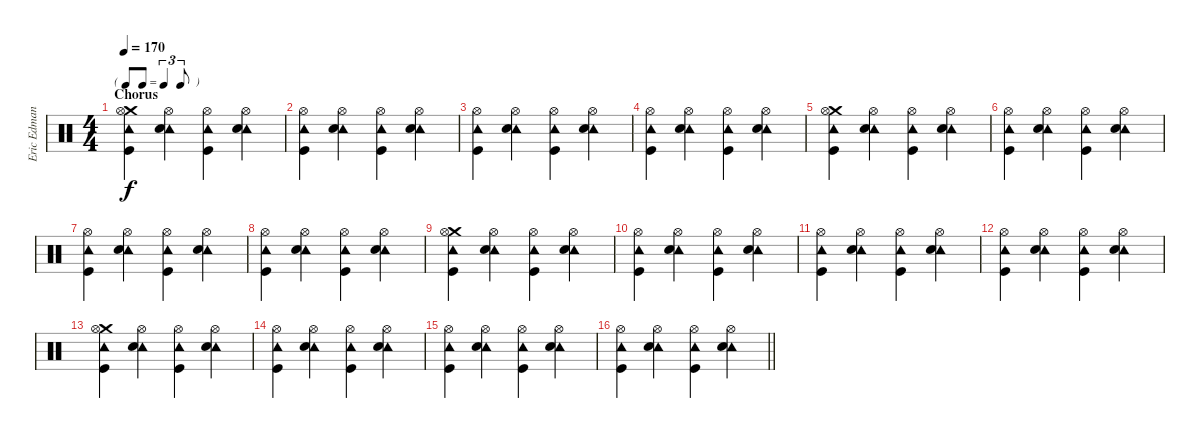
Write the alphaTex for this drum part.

\track ("Eric Edman - Drums" "Eric Edman") {instrument percussion}
\staff {score}
\articulation defaults
\ts (4 4)
\tf triplet8th
\section ("" "Chorus")
\tempo 170
\clef neutral
\ks c
("Crash medium (hit)" "Tambourine (hit)" "Kick (hit)" "Hi-Hat (open)").4{dy f} ("Tambourine (hit)" "Snare (hit) 2" "Hi-Hat (open)").4 ("Tambourine (hit)" "Kick (hit)" "Hi-Hat (open)").4 ("Tambourine (hit)" "Snare (hit) 2" "Hi-Hat (open)").4 |
("Tambourine (hit)" "Kick (hit)" "Hi-Hat (open)").4 ("Tambourine (hit)" "Snare (hit) 2" "Hi-Hat (open)").4 ("Tambourine (hit)" "Kick (hit)" "Hi-Hat (open)").4 ("Tambourine (hit)" "Snare (hit) 2" "Hi-Hat (open)").4 |
("Tambourine (hit)" "Kick (hit)" "Hi-Hat (open)").4 ("Tambourine (hit)" "Snare (hit) 2" "Hi-Hat (open)").4 ("Tambourine (hit)" "Kick (hit)" "Hi-Hat (open)").4 ("Tambourine (hit)" "Snare (hit) 2" "Hi-Hat (open)").4 |
("Tambourine (hit)" "Kick (hit)" "Hi-Hat (open)").4 ("Tambourine (hit)" "Snare (hit) 2" "Hi-Hat (open)").4 ("Tambourine (hit)" "Kick (hit)" "Hi-Hat (open)").4 ("Tambourine (hit)" "Snare (hit) 2" "Hi-Hat (open)").4 |
("Crash medium (hit)" "Tambourine (hit)" "Kick (hit)" "Hi-Hat (open)").4 ("Tambourine (hit)" "Snare (hit) 2" "Hi-Hat (open)").4 ("Tambourine (hit)" "Kick (hit)" "Hi-Hat (open)").4 ("Tambourine (hit)" "Snare (hit) 2" "Hi-Hat (open)").4 |
("Tambourine (hit)" "Kick (hit)" "Hi-Hat (open)").4 ("Tambourine (hit)" "Snare (hit) 2" "Hi-Hat (open)").4 ("Tambourine (hit)" "Kick (hit)" "Hi-Hat (open)").4 ("Tambourine (hit)" "Snare (hit) 2" "Hi-Hat (open)").4 |
("Tambourine (hit)" "Kick (hit)" "Hi-Hat (open)").4 ("Tambourine (hit)" "Snare (hit) 2" "Hi-Hat (open)").4 ("Tambourine (hit)" "Kick (hit)" "Hi-Hat (open)").4 ("Tambourine (hit)" "Snare (hit) 2" "Hi-Hat (open)").4 |
("Tambourine (hit)" "Kick (hit)" "Hi-Hat (open)").4 ("Tambourine (hit)" "Snare (hit) 2" "Hi-Hat (open)").4 ("Tambourine (hit)" "Kick (hit)" "Hi-Hat (open)").4 ("Tambourine (hit)" "Snare (hit) 2" "Hi-Hat (open)").4 |
("Crash medium (hit)" "Tambourine (hit)" "Kick (hit)" "Hi-Hat (open)").4 ("Tambourine (hit)" "Snare (hit) 2" "Hi-Hat (open)").4 ("Tambourine (hit)" "Kick (hit)" "Hi-Hat (open)").4 ("Tambourine (hit)" "Snare (hit) 2" "Hi-Hat (open)").4 |
("Tambourine (hit)" "Kick (hit)" "Hi-Hat (open)").4 ("Tambourine (hit)" "Snare (hit) 2" "Hi-Hat (open)").4 ("Tambourine (hit)" "Kick (hit)" "Hi-Hat (open)").4 ("Tambourine (hit)" "Snare (hit) 2" "Hi-Hat (open)").4 |
("Tambourine (hit)" "Kick (hit)" "Hi-Hat (open)").4 ("Tambourine (hit)" "Snare (hit) 2" "Hi-Hat (open)").4 ("Tambourine (hit)" "Kick (hit)" "Hi-Hat (open)").4 ("Tambourine (hit)" "Snare (hit) 2" "Hi-Hat (open)").4 |
("Tambourine (hit)" "Kick (hit)" "Hi-Hat (open)").4 ("Tambourine (hit)" "Snare (hit) 2" "Hi-Hat (open)").4 ("Tambourine (hit)" "Kick (hit)" "Hi-Hat (open)").4 ("Tambourine (hit)" "Snare (hit) 2" "Hi-Hat (open)").4 |
("Crash medium (hit)" "Tambourine (hit)" "Kick (hit)" "Hi-Hat (open)").4 ("Tambourine (hit)" "Snare (hit) 2" "Hi-Hat (open)").4 ("Tambourine (hit)" "Kick (hit)" "Hi-Hat (open)").4 ("Tambourine (hit)" "Snare (hit) 2" "Hi-Hat (open)").4 |
("Tambourine (hit)" "Kick (hit)" "Hi-Hat (open)").4 ("Tambourine (hit)" "Snare (hit) 2" "Hi-Hat (open)").4 ("Tambourine (hit)" "Kick (hit)" "Hi-Hat (open)").4 ("Tambourine (hit)" "Snare (hit) 2" "Hi-Hat (open)").4 |
("Tambourine (hit)" "Kick (hit)" "Hi-Hat (open)").4 ("Tambourine (hit)" "Snare (hit) 2" "Hi-Hat (open)").4 ("Tambourine (hit)" "Kick (hit)" "Hi-Hat (open)").4 ("Tambourine (hit)" "Snare (hit) 2" "Hi-Hat (open)").4 |
\barLineRight lightlight
("Tambourine (hit)" "Kick (hit)" "Hi-Hat (open)").4 ("Tambourine (hit)" "Snare (hit) 2" "Hi-Hat (open)").4 ("Tambourine (hit)" "Kick (hit)" "Hi-Hat (open)").4 ("Tambourine (hit)" "Snare (hit) 2" "Hi-Hat (open)").4
